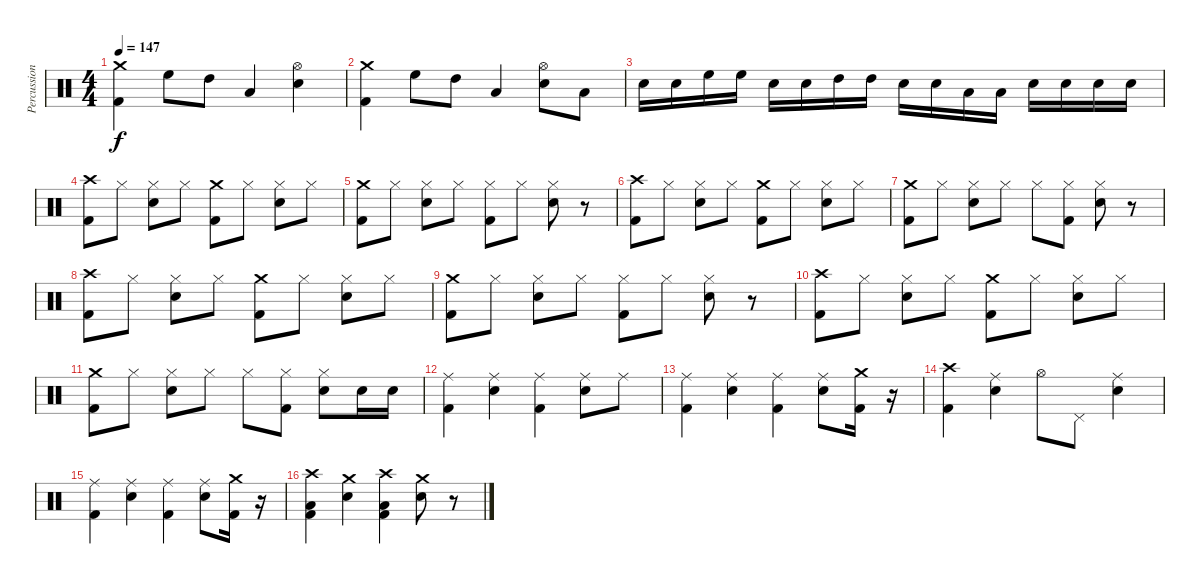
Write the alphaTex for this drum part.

\track ("Percussions" "Percussion") {instrument percussion}
\staff {score}
\articulation defaults
\ts (4 4)
\tempo 147
\clef neutral
\ks c
("Crash medium (hit)" "Kick (hit) 2").4{dy f} "High Floor Tom (hit)".8 "High Tom (hit)".8 "Low Tom (hit)".4 ("Hi-Hat (open)" "Electric Snare (hit)").4 |
("Crash medium (hit)" "Kick (hit) 2").4 "High Floor Tom (hit)".8 "High Tom (hit)".8 "Low Tom (hit)".4 ("Hi-Hat (open)" "Electric Snare (hit)").8 "Low Tom (hit)".8 |
"Electric Snare (hit)".16 "Electric Snare (hit)".16 "High Floor Tom (hit)".16 "High Floor Tom (hit)".16 "Electric Snare (hit)".16 "Electric Snare (hit)".16 "High Tom (hit)".16 "High Tom (hit)".16 "Electric Snare (hit)".16 "Electric Snare (hit)".16 "Low Tom (hit)".16 "Low Tom (hit)".16 "Electric Snare (hit)".16 "Electric Snare (hit)".16 "Electric Snare (hit)".16 "Electric Snare (hit)".16 |
("Crash high (hit)" "Kick (hit) 2").8 "Hi-Hat (closed)".8 ("Hi-Hat (closed)" "Electric Snare (hit)").8 "Hi-Hat (closed)".8 ("Crash medium (hit)" "Kick (hit) 2").8 "Hi-Hat (closed)".8 ("Hi-Hat (closed)" "Electric Snare (hit)").8 "Hi-Hat (closed)".8 |
("Crash medium (hit)" "Kick (hit) 2").8 "Hi-Hat (closed)".8 ("Hi-Hat (closed)" "Electric Snare (hit)").8 "Hi-Hat (closed)".8 ("Hi-Hat (closed)" "Kick (hit) 2").8 "Hi-Hat (closed)".8 ("Hi-Hat (closed)" "Electric Snare (hit)").8 r.8 |
("Crash high (hit)" "Kick (hit) 2").8 "Hi-Hat (closed)".8 ("Hi-Hat (closed)" "Electric Snare (hit)").8 "Hi-Hat (closed)".8 ("Crash medium (hit)" "Kick (hit) 2").8 "Hi-Hat (closed)".8 ("Hi-Hat (closed)" "Electric Snare (hit)").8 "Hi-Hat (closed)".8 |
("Crash medium (hit)" "Kick (hit) 2").8 "Hi-Hat (closed)".8 ("Hi-Hat (closed)" "Electric Snare (hit)").8 "Hi-Hat (closed)".8 "Hi-Hat (closed)".8 ("Hi-Hat (closed)" "Kick (hit) 2").8 ("Hi-Hat (closed)" "Electric Snare (hit)").8 r.8 |
("Crash high (hit)" "Kick (hit) 2").8 "Hi-Hat (closed)".8 ("Hi-Hat (closed)" "Electric Snare (hit)").8 "Hi-Hat (closed)".8 ("Crash medium (hit)" "Kick (hit) 2").8 "Hi-Hat (closed)".8 ("Hi-Hat (closed)" "Electric Snare (hit)").8 "Hi-Hat (closed)".8 |
("Crash medium (hit)" "Kick (hit) 2").8 "Hi-Hat (closed)".8 ("Hi-Hat (closed)" "Electric Snare (hit)").8 "Hi-Hat (closed)".8 ("Hi-Hat (closed)" "Kick (hit) 2").8 "Hi-Hat (closed)".8 ("Hi-Hat (closed)" "Electric Snare (hit)").8 r.8 |
("Crash high (hit)" "Kick (hit) 2").8 "Hi-Hat (closed)".8 ("Hi-Hat (closed)" "Electric Snare (hit)").8 "Hi-Hat (closed)".8 ("Crash medium (hit)" "Kick (hit) 2").8 "Hi-Hat (closed)".8 ("Hi-Hat (closed)" "Electric Snare (hit)").8 "Hi-Hat (closed)".8 |
("Crash medium (hit)" "Kick (hit) 2").8 "Hi-Hat (closed)".8 ("Hi-Hat (closed)" "Electric Snare (hit)").8 "Hi-Hat (closed)".8 "Hi-Hat (closed)".8 ("Hi-Hat (closed)" "Kick (hit) 2").8 ("Hi-Hat (closed)" "Electric Snare (hit)").8 "Electric Snare (hit)".16 "Electric Snare (hit)".16 |
("Ride (middle)" "Kick (hit) 2").4 ("Ride (middle)" "Electric Snare (hit)").4 ("Ride (middle)" "Kick (hit) 2").4 ("Ride (middle)" "Electric Snare (hit)").8 "Ride (middle)".8 |
("Ride (middle)" "Kick (hit) 2").4 ("Ride (middle)" "Electric Snare (hit)").4 ("Ride (middle)" "Kick (hit) 2").4 ("Ride (middle)" "Electric Snare (hit)").8 ("Crash medium (hit)" "Kick (hit) 2").16 r.16 |
("Crash high (hit)" "Kick (hit) 2").4 ("Ride (middle)" "Electric Snare (hit)").4 "Hi-Hat (open)".8 "Pedal Hi-Hat (hit)".8 ("Ride (middle)" "Electric Snare (hit)").4 |
("Ride (middle)" "Kick (hit) 2").4 ("Ride (middle)" "Electric Snare (hit)").4 ("Ride (middle)" "Kick (hit) 2").4 ("Ride (middle)" "Electric Snare (hit)").8 ("Crash medium (hit)" "Kick (hit) 2").16 r.16 |
("Crash high (hit)" "Low Tom (hit)" "Kick (hit) 2").4 ("Crash medium (hit)" "Electric Snare (hit)").4 ("Crash high (hit)" "Low Tom (hit)" "Kick (hit) 2").4 ("Crash medium (hit)" "Electric Snare (hit)").8 r.8
